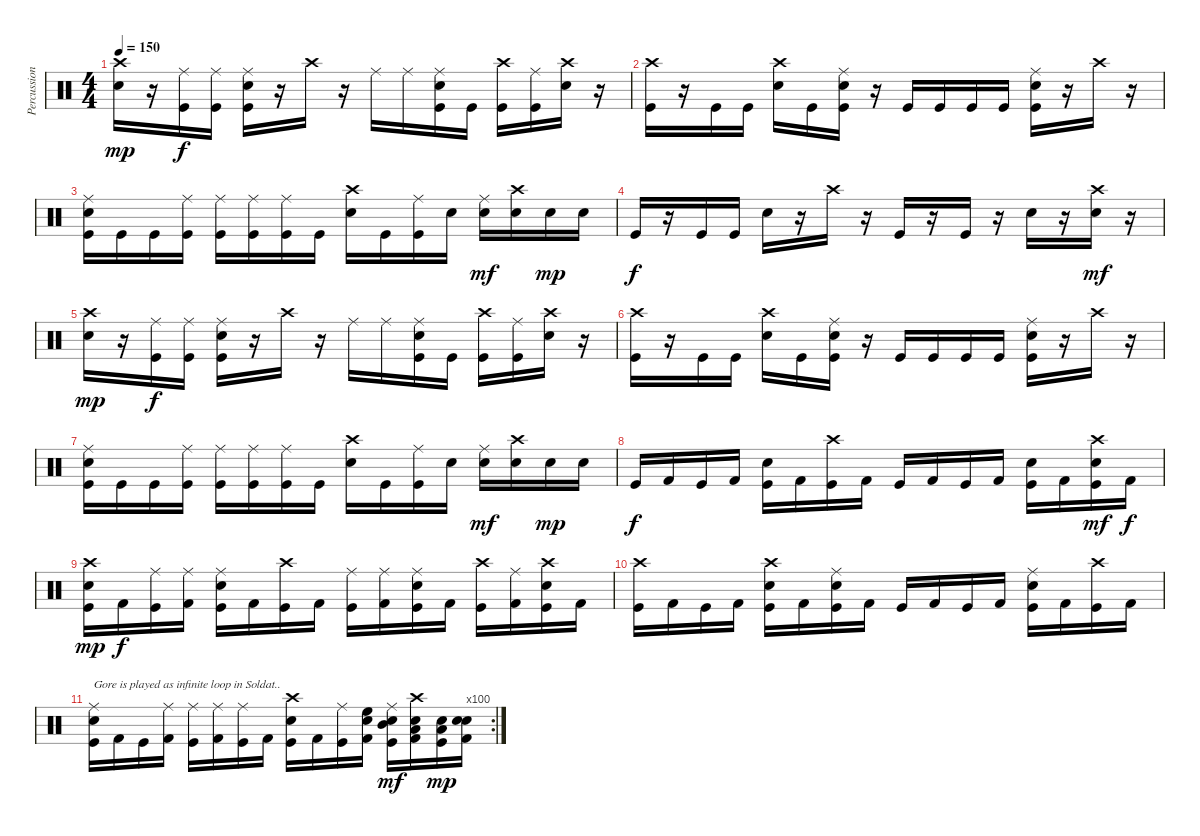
\track ("Percussion" "Percussion") {instrument percussion}
\staff {score}
\articulation defaults
\ts (4 4)
\tempo 150
\clef neutral
\ks c
("Crash high (hit)" "Snare (hit) 2").16{dy mp} r.16 ("Ride (middle)" "Kick (hit)").16{dy f} ("Ride (middle)" "Kick (hit)").16 ("Ride (middle)" "Snare (hit) 2" "Kick (hit)").16 r.16 "Crash high (hit)".16 r.16 "Ride (middle)".16 "Ride (middle)".16 ("Ride (middle)" "Snare (hit) 2" "Kick (hit)").16 "Kick (hit)".16 ("Crash high (hit)" "Kick (hit)").16 ("Ride (middle)" "Kick (hit)").16 ("Crash high (hit)" "Snare (hit) 2").16 r.16 |
("Crash high (hit)" "Kick (hit)").16 r.16 "Kick (hit)".16 "Kick (hit)".16 ("Crash high (hit)" "Snare (hit) 2").16 "Kick (hit)".16 ("Ride (middle)" "Snare (hit) 2" "Kick (hit)").16 r.16 "Kick (hit)".16 "Kick (hit)".16 "Kick (hit)".16 "Kick (hit)".16 ("Ride (middle)" "Snare (hit) 2" "Kick (hit)").16 r.16 "Crash high (hit)".16 r.16 |
("Ride (middle)" "Snare (hit) 2" "Kick (hit)").16 "Kick (hit)".16 "Kick (hit)".16 ("Ride (middle)" "Kick (hit)").16 ("Ride (middle)" "Kick (hit)").16 ("Ride (middle)" "Kick (hit)").16 ("Ride (middle)" "Kick (hit)").16 "Kick (hit)".16 ("Crash high (hit)" "Snare (hit) 2").16 "Kick (hit)".16 ("Ride (middle)" "Kick (hit)").16 "Snare (hit) 2".16 ("Ride (middle)" "Snare (hit) 2").16{dy mf} ("Crash high (hit)" "Snare (hit) 2").16 "Snare (hit) 2".16{dy mp} "Snare (hit) 2".16 |
"Kick (hit)".16{dy f} r.16 "Kick (hit)".16 "Kick (hit)".16 "Snare (hit) 2".16 r.16 "Crash high (hit)".16 r.16 "Kick (hit)".16 r.16 "Kick (hit)".16 r.16 "Snare (hit) 2".16 r.16 ("Crash high (hit)" "Snare (hit) 2").16{dy mf} r.16 |
("Crash high (hit)" "Snare (hit) 2").16{dy mp} r.16 ("Ride (middle)" "Kick (hit)").16{dy f} ("Ride (middle)" "Kick (hit)").16 ("Ride (middle)" "Snare (hit) 2" "Kick (hit)").16 r.16 "Crash high (hit)".16 r.16 "Ride (middle)".16 "Ride (middle)".16 ("Ride (middle)" "Snare (hit) 2" "Kick (hit)").16 "Kick (hit)".16 ("Crash high (hit)" "Kick (hit)").16 ("Ride (middle)" "Kick (hit)").16 ("Crash high (hit)" "Snare (hit) 2").16 r.16 |
("Crash high (hit)" "Kick (hit)").16 r.16 "Kick (hit)".16 "Kick (hit)".16 ("Crash high (hit)" "Snare (hit) 2").16 "Kick (hit)".16 ("Ride (middle)" "Snare (hit) 2" "Kick (hit)").16 r.16 "Kick (hit)".16 "Kick (hit)".16 "Kick (hit)".16 "Kick (hit)".16 ("Ride (middle)" "Snare (hit) 2" "Kick (hit)").16 r.16 "Crash high (hit)".16 r.16 |
("Ride (middle)" "Snare (hit) 2" "Kick (hit)").16 "Kick (hit)".16 "Kick (hit)".16 ("Ride (middle)" "Kick (hit)").16 ("Ride (middle)" "Kick (hit)").16 ("Ride (middle)" "Kick (hit)").16 ("Ride (middle)" "Kick (hit)").16 "Kick (hit)".16 ("Crash high (hit)" "Snare (hit) 2").16 "Kick (hit)".16 ("Ride (middle)" "Kick (hit)").16 "Snare (hit) 2".16 ("Ride (middle)" "Snare (hit) 2").16{dy mf} ("Crash high (hit)" "Snare (hit) 2").16 "Snare (hit) 2".16{dy mp} "Snare (hit) 2".16 |
"Kick (hit)".16{dy f} "Kick (hit) 2".16 "Kick (hit)".16 "Kick (hit) 2".16 ("Snare (hit) 2" "Kick (hit)").16 "Kick (hit) 2".16 ("Crash high (hit)" "Kick (hit)").16 "Kick (hit) 2".16 "Kick (hit)".16 "Kick (hit) 2".16 "Kick (hit)".16 "Kick (hit) 2".16 ("Snare (hit) 2" "Kick (hit)").16 "Kick (hit) 2".16 ("Crash high (hit)" "Snare (hit) 2" "Kick (hit)").16{dy mf} "Kick (hit) 2".16{dy f} |
("Crash high (hit)" "Snare (hit) 2" "Kick (hit)").16{dy mp} "Kick (hit) 2".16{dy f} ("Ride (middle)" "Kick (hit)").16 ("Ride (middle)" "Kick (hit) 2").16 ("Ride (middle)" "Snare (hit) 2" "Kick (hit)").16 "Kick (hit) 2".16 ("Crash high (hit)" "Kick (hit)").16 "Kick (hit) 2".16 ("Ride (middle)" "Kick (hit)").16 ("Ride (middle)" "Kick (hit) 2").16 ("Ride (middle)" "Snare (hit) 2" "Kick (hit)").16 "Kick (hit) 2".16 ("Crash high (hit)" "Kick (hit)").16 ("Ride (middle)" "Kick (hit) 2").16 ("Crash high (hit)" "Snare (hit) 2" "Kick (hit)").16 "Kick (hit) 2".16 |
("Crash high (hit)" "Kick (hit)").16 "Kick (hit) 2".16 "Kick (hit)".16 "Kick (hit) 2".16 ("Crash high (hit)" "Snare (hit) 2" "Kick (hit)").16 "Kick (hit) 2".16 ("Ride (middle)" "Snare (hit) 2" "Kick (hit)").16 "Kick (hit) 2".16 "Kick (hit)".16 "Kick (hit) 2".16 "Kick (hit)".16 "Kick (hit) 2".16 ("Ride (middle)" "Snare (hit) 2" "Kick (hit)").16 "Kick (hit) 2".16 ("Crash high (hit)" "Kick (hit)").16 "Kick (hit) 2".16 |
\rc 100
("Ride (middle)" "Snare (hit) 2" "Kick (hit)").16{txt "Gore is played as infinite loop in Soldat.."} "Kick (hit) 2".16 "Kick (hit)".16 ("Ride (middle)" "Kick (hit) 2").16 ("Ride (middle)" "Kick (hit)").16 ("Ride (middle)" "Kick (hit) 2").16 ("Ride (middle)" "Kick (hit)").16 "Kick (hit) 2".16 ("Crash high (hit)" "Snare (hit) 2" "Kick (hit)").16 "Kick (hit) 2".16 ("Ride (middle)" "Kick (hit)").16 ("Snare (hit) 2" "High Floor Tom (hit)" "Kick (hit) 2").16 ("Ride (middle)" "Snare (hit) 2" "Mid Tom (hit)" "Kick (hit)").16{dy mf} ("Crash high (hit)" "Snare (hit) 2" "Low Tom (hit)" "Kick (hit) 2").16 ("Snare (hit) 2" "Low Floor Tom (hit)" "Kick (hit)").16{dy mp} ("Snare (hit) 2" "Snare (hit) 2" "Kick (hit) 2").16
